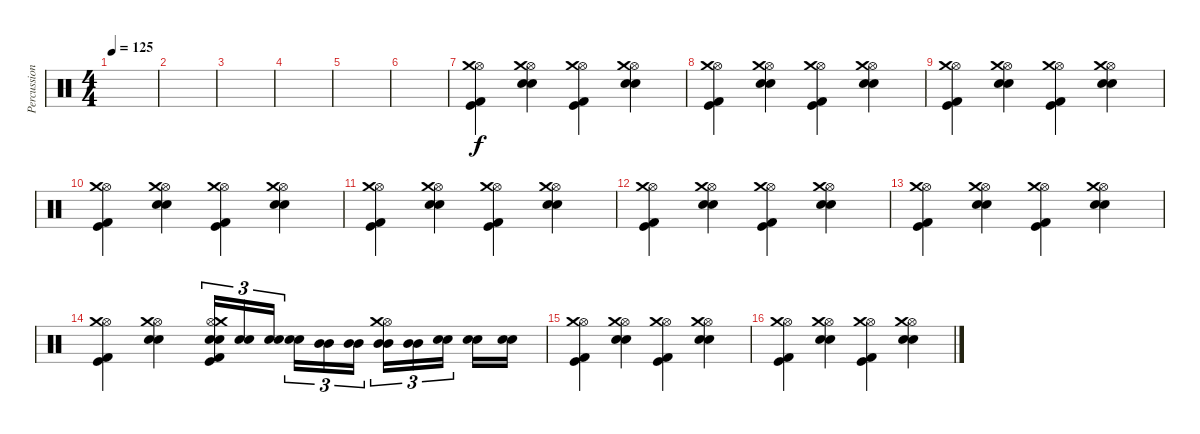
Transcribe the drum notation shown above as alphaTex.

\track ("Percussions" "Percussion") {instrument percussion}
\staff {score}
\articulation defaults
\ts (4 4)
\tempo 125
\clef neutral
\ks c
|
|
|
|
|
|
("Kick (hit)" "Kick (hit) 2" "Hi-Hat (open)" "Crash medium (hit)").4{dy f} ("Snare (hit) 2" "Snare (hit) 2" "Hi-Hat (open)" "Crash medium (hit)").4 ("Kick (hit)" "Kick (hit) 2" "Hi-Hat (open)" "Crash medium (hit)").4 ("Snare (hit) 2" "Snare (hit) 2" "Hi-Hat (open)" "Crash medium (hit)").4 |
("Kick (hit)" "Kick (hit) 2" "Hi-Hat (open)" "Crash medium (hit)").4 ("Snare (hit) 2" "Snare (hit) 2" "Hi-Hat (open)" "Crash medium (hit)").4 ("Kick (hit)" "Kick (hit) 2" "Hi-Hat (open)" "Crash medium (hit)").4 ("Snare (hit) 2" "Snare (hit) 2" "Hi-Hat (open)" "Crash medium (hit)").4 |
("Kick (hit)" "Kick (hit) 2" "Hi-Hat (open)" "Crash medium (hit)").4 ("Snare (hit) 2" "Snare (hit) 2" "Hi-Hat (open)" "Crash medium (hit)").4 ("Kick (hit)" "Kick (hit) 2" "Hi-Hat (open)" "Crash medium (hit)").4 ("Snare (hit) 2" "Snare (hit) 2" "Hi-Hat (open)" "Crash medium (hit)").4 |
("Kick (hit)" "Kick (hit) 2" "Hi-Hat (open)" "Crash medium (hit)").4 ("Snare (hit) 2" "Snare (hit) 2" "Hi-Hat (open)" "Crash medium (hit)").4 ("Kick (hit)" "Kick (hit) 2" "Hi-Hat (open)" "Crash medium (hit)").4 ("Snare (hit) 2" "Snare (hit) 2" "Hi-Hat (open)" "Crash medium (hit)").4 |
("Kick (hit)" "Kick (hit) 2" "Hi-Hat (open)" "Crash medium (hit)").4 ("Snare (hit) 2" "Snare (hit) 2" "Hi-Hat (open)" "Crash medium (hit)").4 ("Kick (hit)" "Kick (hit) 2" "Hi-Hat (open)" "Crash medium (hit)").4 ("Snare (hit) 2" "Snare (hit) 2" "Hi-Hat (open)" "Crash medium (hit)").4 |
("Kick (hit)" "Kick (hit) 2" "Hi-Hat (open)" "Crash medium (hit)").4 ("Snare (hit) 2" "Snare (hit) 2" "Hi-Hat (open)" "Crash medium (hit)").4 ("Kick (hit)" "Kick (hit) 2" "Hi-Hat (open)" "Crash medium (hit)").4 ("Snare (hit) 2" "Snare (hit) 2" "Hi-Hat (open)" "Crash medium (hit)").4 |
("Kick (hit)" "Kick (hit) 2" "Hi-Hat (open)" "Crash medium (hit)").4 ("Snare (hit) 2" "Snare (hit) 2" "Hi-Hat (open)" "Crash medium (hit)").4 ("Kick (hit)" "Kick (hit) 2" "Hi-Hat (open)" "Crash medium (hit)").4 ("Snare (hit) 2" "Snare (hit) 2" "Hi-Hat (open)" "Crash medium (hit)").4 |
("Kick (hit)" "Kick (hit) 2" "Hi-Hat (open)" "Crash medium (hit)").4 ("Snare (hit) 2" "Snare (hit) 2" "Hi-Hat (open)" "Crash medium (hit)").4 ("Snare (hit) 2" "Snare (hit) 2" "Kick (hit)" "Kick (hit) 2" "Hi-Hat (open)" "Crash medium (hit)").16{tu (3 2)} ("Snare (hit) 2" "Snare (hit) 2").16{tu (3 2)} ("Snare (hit) 2" "Snare (hit) 2").16{tu (3 2)} ("Snare (hit) 2" "Snare (hit) 2").16{tu (3 2)} ("Mid Tom (hit)" "Mid Tom (hit)").16{tu (3 2)} ("Mid Tom (hit)" "Mid Tom (hit)").16{tu (3 2)} ("Mid Tom (hit)" "Mid Tom (hit)" "Hi-Hat (open)" "Crash medium (hit)").16{tu (3 2)} ("Mid Tom (hit)" "Mid Tom (hit)").16{tu (3 2)} ("Snare (hit) 2" "Snare (hit) 2").16{tu (3 2)} ("Snare (hit) 2" "Snare (hit) 2").16 ("Snare (hit) 2" "Snare (hit) 2").16 |
("Kick (hit)" "Kick (hit) 2" "Hi-Hat (open)" "Crash medium (hit)").4 ("Snare (hit) 2" "Snare (hit) 2" "Hi-Hat (open)" "Crash medium (hit)").4 ("Kick (hit)" "Kick (hit) 2" "Hi-Hat (open)" "Crash medium (hit)").4 ("Snare (hit) 2" "Snare (hit) 2" "Hi-Hat (open)" "Crash medium (hit)").4 |
("Kick (hit)" "Kick (hit) 2" "Hi-Hat (open)" "Crash medium (hit)").4 ("Snare (hit) 2" "Snare (hit) 2" "Hi-Hat (open)" "Crash medium (hit)").4 ("Kick (hit)" "Kick (hit) 2" "Hi-Hat (open)" "Crash medium (hit)").4 ("Snare (hit) 2" "Snare (hit) 2" "Hi-Hat (open)" "Crash medium (hit)").4
